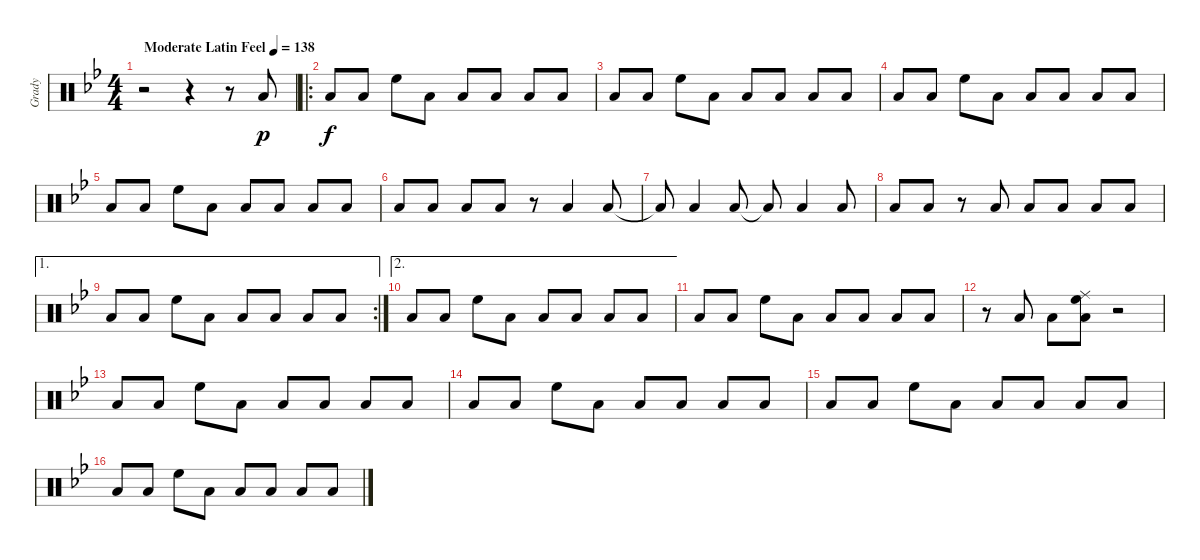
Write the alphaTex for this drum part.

\track ("Grady" "Grady") {instrument percussion}
\staff {score}
\articulation defaults
\ts (4 4)
\tempo (138 "Moderate Latin Feel")
\clef neutral
\ks bb
r.2{dy p} r.4 r.8 "Low Tom (hit)".8 |
\ro "Low Tom (hit)".8{dy f} "Low Tom (hit)".8 "High Floor Tom (hit)".8 "Low Tom (hit)".8 "Low Tom (hit)".8 "Low Tom (hit)".8 "Low Tom (hit)".8 "Low Tom (hit)".8
|
"Low Tom (hit)".8 "Low Tom (hit)".8 "High Floor Tom (hit)".8 "Low Tom (hit)".8 "Low Tom (hit)".8 "Low Tom (hit)".8 "Low Tom (hit)".8 "Low Tom (hit)".8 |
"Low Tom (hit)".8 "Low Tom (hit)".8 "High Floor Tom (hit)".8 "Low Tom (hit)".8 "Low Tom (hit)".8 "Low Tom (hit)".8 "Low Tom (hit)".8 "Low Tom (hit)".8 |
"Low Tom (hit)".8 "Low Tom (hit)".8 "High Floor Tom (hit)".8 "Low Tom (hit)".8 "Low Tom (hit)".8 "Low Tom (hit)".8 "Low Tom (hit)".8 "Low Tom (hit)".8 |
"Low Tom (hit)".8 "Low Tom (hit)".8 "Low Tom (hit)".8 "Low Tom (hit)".8 r.8 "Low Tom (hit)".4 "Low Tom (hit)".8 |
"Low Tom (hit)"{t}.8 "Low Tom (hit)".4 "Low Tom (hit)".8 "Low Tom (hit)"{t}.8 "Low Tom (hit)".4 "Low Tom (hit)".8 |
"Low Tom (hit)".8 "Low Tom (hit)".8 r.8 "Low Tom (hit)".8 "Low Tom (hit)".8 "Low Tom (hit)".8 "Low Tom (hit)".8 "Low Tom (hit)".8 |
\ae 1
\rc 2 "Low Tom (hit)".8 "Low Tom (hit)".8 "High Floor Tom (hit)".8 "Low Tom (hit)".8 "Low Tom (hit)".8 "Low Tom (hit)".8 "Low Tom (hit)".8 "Low Tom (hit)".8
|
\ae 2 "Low Tom (hit)".8 "Low Tom (hit)".8 "High Floor Tom (hit)".8 "Low Tom (hit)".8 "Low Tom (hit)".8 "Low Tom (hit)".8 "Low Tom (hit)".8 "Low Tom (hit)".8
|
"Low Tom (hit)".8 "Low Tom (hit)".8 "High Floor Tom (hit)".8 "Low Tom (hit)".8 "Low Tom (hit)".8 "Low Tom (hit)".8 "Low Tom (hit)".8 "Low Tom (hit)".8 |
r.8 "Low Tom (hit)".8 "Low Tom (hit)".8 ("High Floor Tom (hit)" "Ride (middle)" "Low Tom (hit)").8 r.2 |
"Low Tom (hit)".8 "Low Tom (hit)".8 "High Floor Tom (hit)".8 "Low Tom (hit)".8 "Low Tom (hit)".8 "Low Tom (hit)".8 "Low Tom (hit)".8 "Low Tom (hit)".8 |
"Low Tom (hit)".8 "Low Tom (hit)".8 "High Floor Tom (hit)".8 "Low Tom (hit)".8 "Low Tom (hit)".8 "Low Tom (hit)".8 "Low Tom (hit)".8 "Low Tom (hit)".8 |
"Low Tom (hit)".8 "Low Tom (hit)".8 "High Floor Tom (hit)".8 "Low Tom (hit)".8 "Low Tom (hit)".8 "Low Tom (hit)".8 "Low Tom (hit)".8 "Low Tom (hit)".8 |
"Low Tom (hit)".8 "Low Tom (hit)".8 "High Floor Tom (hit)".8 "Low Tom (hit)".8 "Low Tom (hit)".8 "Low Tom (hit)".8 "Low Tom (hit)".8 "Low Tom (hit)".8
